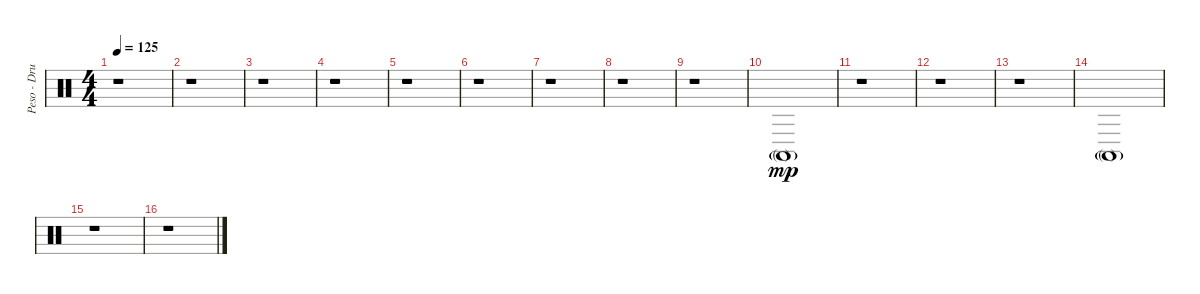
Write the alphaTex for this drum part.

\track ("Peso - Drums" "Peso - Dru") {instrument percussion}
\staff {score}
\articulation defaults
\ts (4 4)
\tempo 125
\clef neutral
\ks c
r.1{dy mp} |
r.1 |
r.1 |
r.1 |
r.1 |
r.1 |
r.1 |
r.1 |
r.1 |
"Conga high (mute)"{g}.1{volume 6} |
r.1 |
r.1 |
r.1 |
"Conga high (mute)"{g}.1 |
r.1 |
r.1
